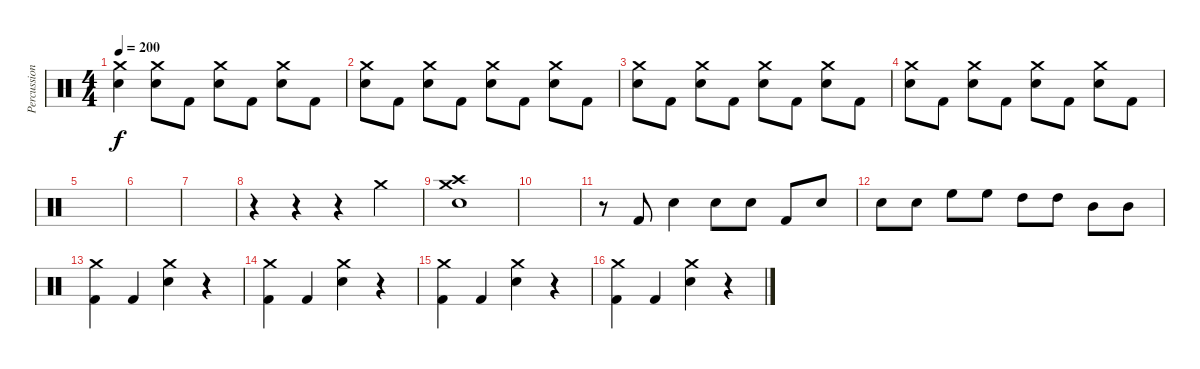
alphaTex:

\track ("Percussion" "Percussion") {instrument percussion}
\staff {score}
\articulation defaults
\ts (4 4)
\tempo 200
\clef neutral
\ks c
("Crash medium (hit)" "Snare (hit) 2").4{dy f} ("Crash medium (hit)" "Snare (hit) 2").8 "Kick (hit) 2".8 ("Crash medium (hit)" "Snare (hit) 2").8 "Kick (hit) 2".8 ("Crash medium (hit)" "Snare (hit) 2").8 "Kick (hit) 2".8 |
("Crash medium (hit)" "Snare (hit) 2").8 "Kick (hit) 2".8 ("Crash medium (hit)" "Snare (hit) 2").8 "Kick (hit) 2".8 ("Crash medium (hit)" "Snare (hit) 2").8 "Kick (hit) 2".8 ("Crash medium (hit)" "Snare (hit) 2").8 "Kick (hit) 2".8 |
("Crash medium (hit)" "Snare (hit) 2").8 "Kick (hit) 2".8 ("Crash medium (hit)" "Snare (hit) 2").8 "Kick (hit) 2".8 ("Crash medium (hit)" "Snare (hit) 2").8 "Kick (hit) 2".8 ("Crash medium (hit)" "Snare (hit) 2").8 "Kick (hit) 2".8 |
("Crash medium (hit)" "Snare (hit) 2").8 "Kick (hit) 2".8 ("Crash medium (hit)" "Snare (hit) 2").8 "Kick (hit) 2".8 ("Crash medium (hit)" "Snare (hit) 2").8 "Kick (hit) 2".8 ("Crash medium (hit)" "Snare (hit) 2").8 "Kick (hit) 2".8 |
|
|
|
r.4 r.4 r.4 "Crash medium (hit)".4 |
("Crash medium (hit)" "Crash high (hit)" "Snare (hit) 2").1 |
|
r.8 "Kick (hit) 2".8 "Snare (hit) 2".4 "Snare (hit) 2".8 "Snare (hit) 2".8 "Kick (hit) 2".8 "Snare (hit) 2".8 |
"Snare (hit) 2".8 "Snare (hit) 2".8 "High Floor Tom (hit)".8 "High Floor Tom (hit)".8 "High Tom (hit)".8 "High Tom (hit)".8 "Mid Tom (hit)".8 "Mid Tom (hit)".8 |
("Crash medium (hit)" "Kick (hit) 2").4 "Kick (hit) 2".4 ("Crash medium (hit)" "Snare (hit) 2").4 r.4 |
("Crash medium (hit)" "Kick (hit) 2").4 "Kick (hit) 2".4 ("Crash medium (hit)" "Snare (hit) 2").4 r.4 |
("Crash medium (hit)" "Kick (hit) 2").4 "Kick (hit) 2".4 ("Crash medium (hit)" "Snare (hit) 2").4 r.4 |
("Crash medium (hit)" "Kick (hit) 2").4 "Kick (hit) 2".4 ("Crash medium (hit)" "Snare (hit) 2").4 r.4
